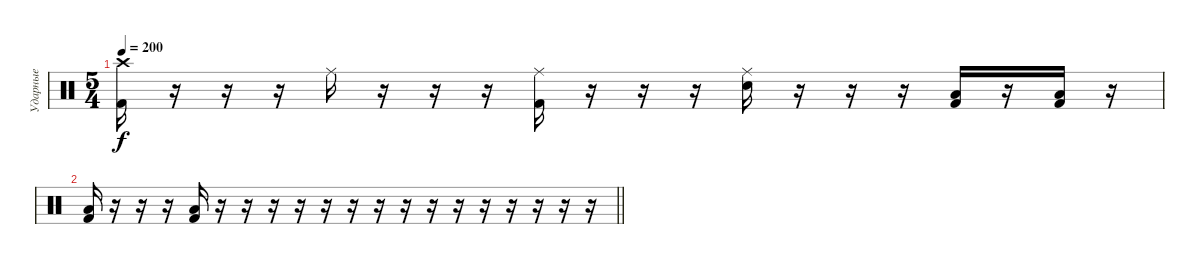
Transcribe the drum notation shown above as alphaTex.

\track ("Ударные" "Ударные") {instrument percussion}
\staff {score}
\articulation defaults
\ts (5 4)
\tempo 200
\clef neutral
\ks c
("Crash high (hit)" "Kick (hit) 2").16{dy f} r.16 r.16 r.16 "Ride (middle)".16 r.16 r.16 r.16 ("Ride (middle)" "Kick (hit) 2").16 r.16 r.16 r.16 ("Ride (middle)" "Electric Snare (hit)").16 r.16 r.16 r.16 ("Low Tom (hit)" "Kick (hit) 2").16 r.16 ("Low Tom (hit)" "Kick (hit) 2").16 r.16 |
\barLineRight lightlight
("Low Tom (hit)" "Kick (hit) 2").16 r.16 r.16 r.16 ("Low Tom (hit)" "Kick (hit) 2").16 r.16 r.16 r.16 r.16 r.16 r.16 r.16 r.16 r.16 r.16 r.16 r.16 r.16 r.16 r.16
